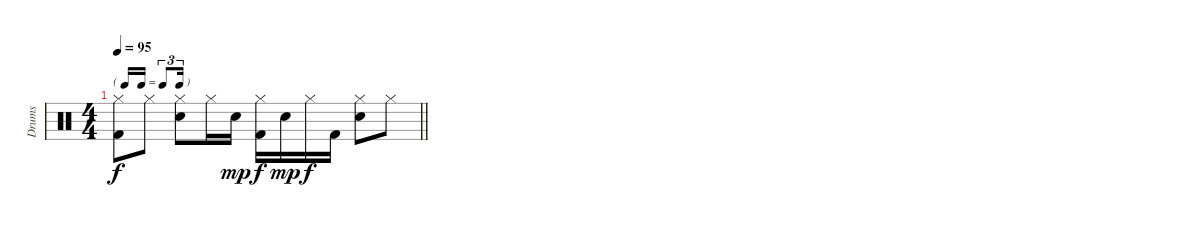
\track ("Drums" "Drums") {instrument percussion}
\staff {score}
\articulation defaults
\ts (4 4)
\tf triplet16th
\tempo 95
\clef neutral
\barLineRight lightlight
\ks c
("Hi-Hat (closed)" "Kick (hit) 2").8{dy f} "Hi-Hat (closed)".8 ("Hi-Hat (closed)" "Snare (hit) 2").8 "Hi-Hat (closed)".16 "Snare (hit) 2".16{dy mp} ("Hi-Hat (closed)" "Kick (hit) 2").16{dy f} "Snare (hit) 2".16{dy mp} "Hi-Hat (closed)".16{dy f} "Kick (hit) 2".16 ("Hi-Hat (closed)" "Snare (hit) 2").8 "Hi-Hat (closed)".8
